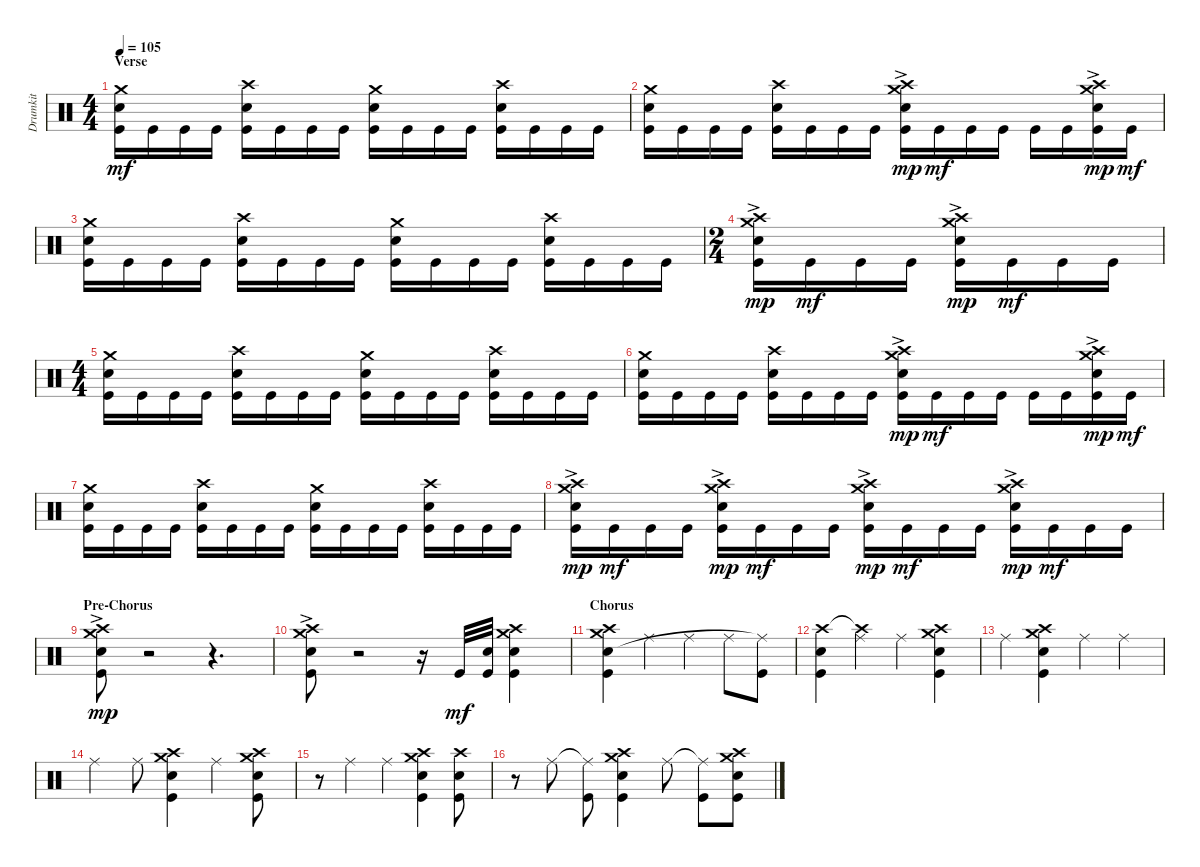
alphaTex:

\track ("Drumkit" "Drumkit") {instrument percussion}
\staff {score}
\articulation defaults
\ts (4 4)
\section ("" "Verse")
\tempo 105
\clef neutral
\ks c
("Crash medium (hit)" "Snare (hit) 2" "Kick (hit)").16{dy mf} "Kick (hit)".16 "Kick (hit)".16 "Kick (hit)".16 ("Kick (hit)" "Crash high (hit)" "Snare (hit) 2").16 "Kick (hit)".16 "Kick (hit)".16 "Kick (hit)".16 ("Kick (hit)" "Crash medium (hit)" "Snare (hit) 2").16 "Kick (hit)".16 "Kick (hit)".16 "Kick (hit)".16 ("Kick (hit)" "Crash high (hit)" "Snare (hit) 2").16 "Kick (hit)".16 "Kick (hit)".16 "Kick (hit)".16 |
("Kick (hit)" "Crash medium (hit)" "Snare (hit) 2").16 "Kick (hit)".16 "Kick (hit)".16 "Kick (hit)".16 ("Kick (hit)" "Crash high (hit)" "Snare (hit) 2").16 "Kick (hit)".16 "Kick (hit)".16 "Kick (hit)".16 ("Snare (hit) 2"{ac} "Crash high (hit)"{ac} "Crash medium (hit)"{ac} "Kick (hit)"{ac}).16{dy mp} "Kick (hit)".16{dy mf} "Kick (hit)".16 "Kick (hit)".16 "Kick (hit)".16 "Kick (hit)".16 ("Kick (hit)"{ac} "Snare (hit) 2"{ac} "Crash high (hit)"{ac} "Crash medium (hit)"{ac}).16{dy mp} "Kick (hit)".16{dy mf} |
("Snare (hit) 2" "Kick (hit)" "Crash medium (hit)").16 "Kick (hit)".16 "Kick (hit)".16 "Kick (hit)".16 ("Kick (hit)" "Crash high (hit)" "Snare (hit) 2").16 "Kick (hit)".16 "Kick (hit)".16 "Kick (hit)".16 ("Kick (hit)" "Crash medium (hit)" "Snare (hit) 2").16 "Kick (hit)".16 "Kick (hit)".16 "Kick (hit)".16 ("Kick (hit)" "Crash high (hit)" "Snare (hit) 2").16 "Kick (hit)".16 "Kick (hit)".16 "Kick (hit)".16 |
\ts (2 4)
("Kick (hit)"{ac} "Crash high (hit)"{ac} "Snare (hit) 2"{ac} "Crash medium (hit)"{ac}).16{dy mp} "Kick (hit)".16{dy mf} "Kick (hit)".16 "Kick (hit)".16 ("Snare (hit) 2"{ac} "Crash high (hit)"{ac} "Crash medium (hit)"{ac} "Kick (hit)"{ac}).16{dy mp} "Kick (hit)".16{dy mf} "Kick (hit)".16 "Kick (hit)".16 |
\ts (4 4)
("Crash medium (hit)" "Snare (hit) 2" "Kick (hit)").16 "Kick (hit)".16 "Kick (hit)".16 "Kick (hit)".16 ("Kick (hit)" "Crash high (hit)" "Snare (hit) 2").16 "Kick (hit)".16 "Kick (hit)".16 "Kick (hit)".16 ("Kick (hit)" "Crash medium (hit)" "Snare (hit) 2").16 "Kick (hit)".16 "Kick (hit)".16 "Kick (hit)".16 ("Kick (hit)" "Crash high (hit)" "Snare (hit) 2").16 "Kick (hit)".16 "Kick (hit)".16 "Kick (hit)".16 |
("Kick (hit)" "Crash medium (hit)" "Snare (hit) 2").16 "Kick (hit)".16 "Kick (hit)".16 "Kick (hit)".16 ("Kick (hit)" "Crash high (hit)" "Snare (hit) 2").16 "Kick (hit)".16 "Kick (hit)".16 "Kick (hit)".16 ("Snare (hit) 2"{ac} "Crash high (hit)"{ac} "Crash medium (hit)"{ac} "Kick (hit)"{ac}).16{dy mp} "Kick (hit)".16{dy mf} "Kick (hit)".16 "Kick (hit)".16 "Kick (hit)".16 "Kick (hit)".16 ("Kick (hit)"{ac} "Snare (hit) 2"{ac} "Crash high (hit)"{ac} "Crash medium (hit)"{ac}).16{dy mp} "Kick (hit)".16{dy mf} |
("Snare (hit) 2" "Kick (hit)" "Crash medium (hit)").16 "Kick (hit)".16 "Kick (hit)".16 "Kick (hit)".16 ("Kick (hit)" "Crash high (hit)" "Snare (hit) 2").16 "Kick (hit)".16 "Kick (hit)".16 "Kick (hit)".16 ("Kick (hit)" "Crash medium (hit)" "Snare (hit) 2").16 "Kick (hit)".16 "Kick (hit)".16 "Kick (hit)".16 ("Kick (hit)" "Crash high (hit)" "Snare (hit) 2").16 "Kick (hit)".16 "Kick (hit)".16 "Kick (hit)".16 |
("Kick (hit)"{ac} "Crash high (hit)"{ac} "Snare (hit) 2"{ac} "Crash medium (hit)"{ac}).16{dy mp} "Kick (hit)".16{dy mf} "Kick (hit)".16 "Kick (hit)".16 ("Kick (hit)"{ac} "Crash high (hit)"{ac} "Snare (hit) 2"{ac} "Crash medium (hit)"{ac}).16{dy mp} "Kick (hit)".16{dy mf} "Kick (hit)".16 "Kick (hit)".16 ("Kick (hit)"{ac} "Crash high (hit)"{ac} "Snare (hit) 2"{ac} "Crash medium (hit)"{ac}).16{dy mp} "Kick (hit)".16{dy mf} "Kick (hit)".16 "Kick (hit)".16 ("Kick (hit)"{ac} "Crash high (hit)"{ac} "Snare (hit) 2"{ac} "Crash medium (hit)"{ac}).16{dy mp} "Kick (hit)".16{dy mf} "Kick (hit)".16 "Kick (hit)".16 |
\section ("" "Pre-Chorus")
("Kick (hit)"{ac} "Snare (hit) 2"{ac} "Crash high (hit)"{ac} "Crash medium (hit)"{ac}).8{dy mp} r.2 r.4{d} |
("Kick (hit)"{ac} "Snare (hit) 2"{ac} "Crash high (hit)"{ac} "Crash medium (hit)"{ac}).8 r.2 r.16 "Kick (hit)".32{dy mf} ("Kick (hit)" "Snare (hit) 2").32 ("Kick (hit)" "Snare (hit) 2" "Crash high (hit)" "Crash medium (hit)").4 |
\section ("" "Chorus")
("Kick (hit)" "Snare (hit) 2" "Crash high (hit)" "Crash medium (hit)").4 "Ride (middle)".4 "Ride (middle)".4 "Ride (middle)".8 ("Kick (hit)" "Ride (middle)"{t}).8 |
("Snare (hit) 2" "Crash high (hit)" "Kick (hit)").4 ("Ride (middle)" "Crash high (hit)"{t}).4 "Ride (middle)".4 ("Snare (hit) 2" "Crash high (hit)" "Crash medium (hit)" "Kick (hit)").4 |
"Ride (middle)".4 ("Kick (hit)" "Snare (hit) 2" "Crash high (hit)" "Crash medium (hit)").4 "Ride (middle)".4 "Ride (middle)".4 |
"Ride (middle)".4 "Ride (middle)".8 ("Kick (hit)" "Snare (hit) 2" "Crash high (hit)" "Crash medium (hit)").4 "Ride (middle)".4 ("Kick (hit)" "Snare (hit) 2" "Crash high (hit)" "Crash medium (hit)").8 |
r.8 "Ride (middle)".4 "Ride (middle)".4 ("Crash high (hit)" "Crash medium (hit)" "Snare (hit) 2" "Kick (hit)").4 ("Kick (hit)" "Snare (hit) 2" "Crash high (hit)").8 |
r.8 "Ride (middle)".8 ("Ride (middle)"{t} "Kick (hit)").8 ("Kick (hit)" "Snare (hit) 2" "Crash high (hit)" "Crash medium (hit)").4 "Ride (middle)".8 ("Ride (middle)"{t} "Kick (hit)").8 ("Kick (hit)" "Snare (hit) 2" "Crash high (hit)" "Crash medium (hit)").8
